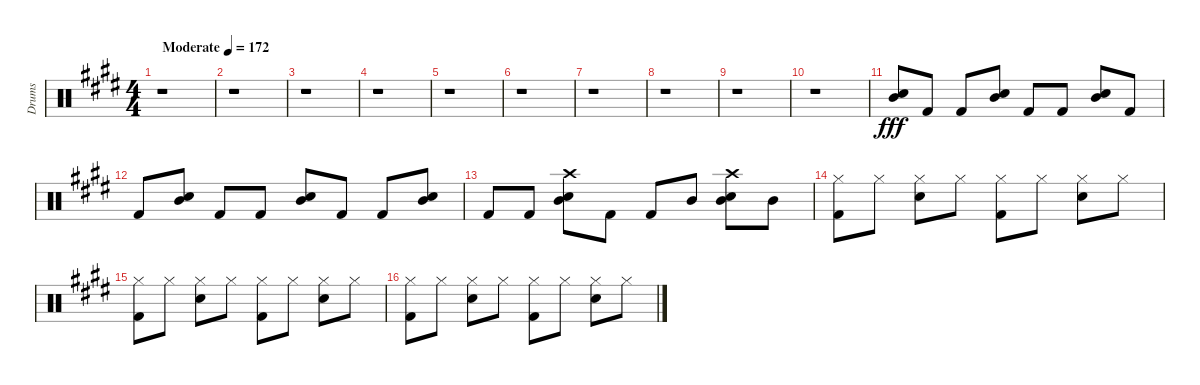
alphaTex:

\track ("Drums" "Drums") {instrument percussion}
\staff {score}
\articulation defaults
\ts (4 4)
\tempo (172 "Moderate")
\clef neutral
\ks e
r.1{dy fff} |
r.1 |
r.1 |
r.1 |
r.1 |
r.1 |
r.1 |
r.1 |
r.1 |
r.1 |
("Electric Snare (hit)" "Mid Tom (hit)").8 "Kick (hit) 2".8 "Kick (hit) 2".8 ("Electric Snare (hit)" "Mid Tom (hit)").8 "Kick (hit) 2".8 "Kick (hit) 2".8 ("Electric Snare (hit)" "Mid Tom (hit)").8 "Kick (hit) 2".8 |
"Kick (hit) 2".8 ("Electric Snare (hit)" "Mid Tom (hit)").8 "Kick (hit) 2".8 "Kick (hit) 2".8 ("Electric Snare (hit)" "Mid Tom (hit)").8 "Kick (hit) 2".8 "Kick (hit) 2".8 ("Electric Snare (hit)" "Mid Tom (hit)").8 |
"Kick (hit) 2".8 "Kick (hit) 2".8 ("Electric Snare (hit)" "Mid Tom (hit)" "Crash high (hit)").8 "Kick (hit) 2".8 "Kick (hit) 2".8 "Mid Tom (hit)".8 ("Electric Snare (hit)" "Mid Tom (hit)" "Crash high (hit)").8 "Mid Tom (hit)".8 |
("Hi-Hat (closed)" "Kick (hit) 2").8 "Hi-Hat (closed)".8 ("Hi-Hat (closed)" "Electric Snare (hit)").8 "Hi-Hat (closed)".8 ("Hi-Hat (closed)" "Kick (hit) 2").8 "Hi-Hat (closed)".8 ("Hi-Hat (closed)" "Electric Snare (hit)").8 "Hi-Hat (closed)".8 |
("Hi-Hat (closed)" "Kick (hit) 2").8 "Hi-Hat (closed)".8 ("Hi-Hat (closed)" "Electric Snare (hit)").8 "Hi-Hat (closed)".8 ("Hi-Hat (closed)" "Kick (hit) 2").8 "Hi-Hat (closed)".8 ("Hi-Hat (closed)" "Electric Snare (hit)").8 "Hi-Hat (closed)".8 |
("Hi-Hat (closed)" "Kick (hit) 2").8 "Hi-Hat (closed)".8 ("Hi-Hat (closed)" "Electric Snare (hit)").8 "Hi-Hat (closed)".8 ("Hi-Hat (closed)" "Kick (hit) 2").8 "Hi-Hat (closed)".8 ("Hi-Hat (closed)" "Electric Snare (hit)").8 "Hi-Hat (closed)".8
